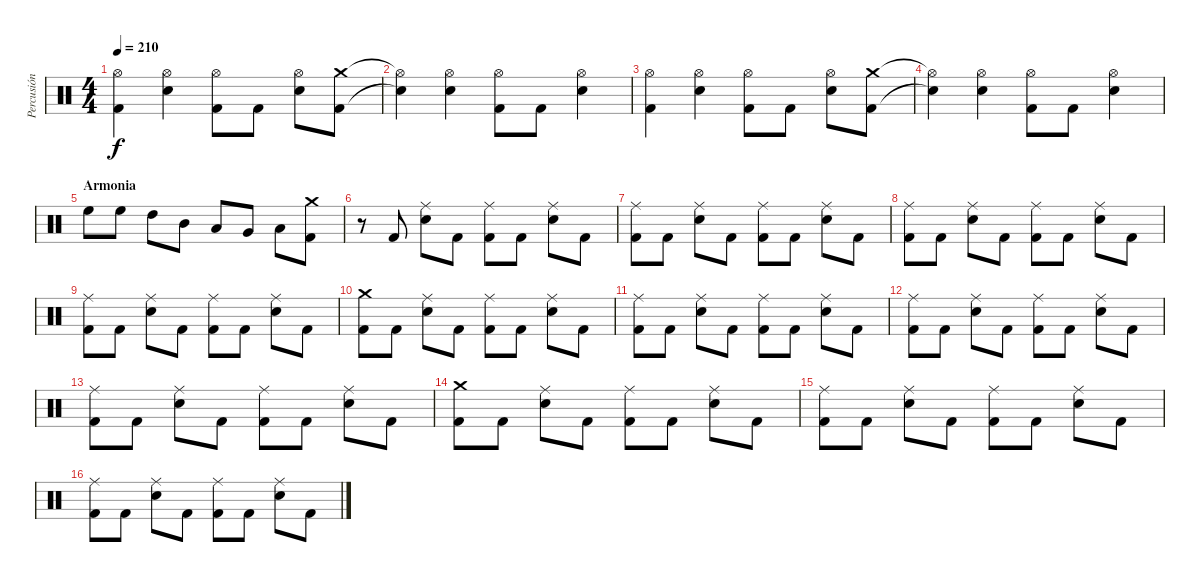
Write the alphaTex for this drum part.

\track ("Percusión" "Percusión") {instrument percussion}
\staff {score}
\articulation defaults
\ts (4 4)
\tempo 210
\clef neutral
\ks c
("Hi-Hat (open)" "Kick (hit) 2").4{dy f} ("Snare (hit) 2" "Hi-Hat (open)").4 ("Hi-Hat (open)" "Kick (hit) 2").8 "Kick (hit) 2".8 ("Snare (hit) 2" "Hi-Hat (open)").8 ("Crash medium (hit)" "Kick (hit) 2").8 |
("Hi-Hat (open)"{t} "Snare (hit)"{t}).4 ("Snare (hit) 2" "Hi-Hat (open)").4 ("Hi-Hat (open)" "Kick (hit) 2").8 "Kick (hit) 2".8 ("Snare (hit) 2" "Hi-Hat (open)").4 |
("Hi-Hat (open)" "Kick (hit) 2").4 ("Snare (hit) 2" "Hi-Hat (open)").4 ("Hi-Hat (open)" "Kick (hit) 2").8 "Kick (hit) 2".8 ("Snare (hit) 2" "Hi-Hat (open)").8 ("Crash medium (hit)" "Kick (hit) 2").8 |
("Hi-Hat (open)"{t} "Snare (hit)"{t}).4 ("Snare (hit) 2" "Hi-Hat (open)").4 ("Hi-Hat (open)" "Kick (hit) 2").8 "Kick (hit) 2".8 ("Snare (hit) 2" "Hi-Hat (open)").4 |
\section ("" "Armonia")
"High Floor Tom (hit)".8 "High Floor Tom (hit)".8 "High Tom (hit)".8 "Mid Tom (hit)".8 "Low Tom (hit)".8 "Very Low Tom (hit)".8 "Low Floor Tom (hit)".8 ("Kick (hit) 2" "Crash medium (hit)").8 |
r.8 "Kick (hit) 2".8 ("Snare (hit) 2" "Ride (middle)").8 "Kick (hit) 2".8 ("Kick (hit) 2" "Ride (middle)").8 "Kick (hit) 2".8 ("Snare (hit) 2" "Ride (middle)").8 "Kick (hit) 2".8 |
("Ride (middle)" "Kick (hit) 2").8 "Kick (hit) 2".8 ("Snare (hit) 2" "Ride (middle)").8 "Kick (hit) 2".8 ("Kick (hit) 2" "Ride (middle)").8 "Kick (hit) 2".8 ("Snare (hit) 2" "Ride (middle)").8 "Kick (hit) 2".8 |
("Ride (middle)" "Kick (hit) 2").8 "Kick (hit) 2".8 ("Snare (hit) 2" "Ride (middle)").8 "Kick (hit) 2".8 ("Kick (hit) 2" "Ride (middle)").8 "Kick (hit) 2".8 ("Snare (hit) 2" "Ride (middle)").8 "Kick (hit) 2".8 |
("Ride (middle)" "Kick (hit) 2").8 "Kick (hit) 2".8 ("Snare (hit) 2" "Ride (middle)").8 "Kick (hit) 2".8 ("Kick (hit) 2" "Ride (middle)").8 "Kick (hit) 2".8 ("Snare (hit) 2" "Ride (middle)").8 "Kick (hit) 2".8 |
("Crash medium (hit)" "Kick (hit) 2").8 "Kick (hit) 2".8 ("Snare (hit) 2" "Ride (middle)").8 "Kick (hit) 2".8 ("Kick (hit) 2" "Ride (middle)").8 "Kick (hit) 2".8 ("Snare (hit) 2" "Ride (middle)").8 "Kick (hit) 2".8 |
("Ride (middle)" "Kick (hit) 2").8 "Kick (hit) 2".8 ("Snare (hit) 2" "Ride (middle)").8 "Kick (hit) 2".8 ("Kick (hit) 2" "Ride (middle)").8 "Kick (hit) 2".8 ("Snare (hit) 2" "Ride (middle)").8 "Kick (hit) 2".8 |
("Ride (middle)" "Kick (hit) 2").8 "Kick (hit) 2".8 ("Snare (hit) 2" "Ride (middle)").8 "Kick (hit) 2".8 ("Kick (hit) 2" "Ride (middle)").8 "Kick (hit) 2".8 ("Snare (hit) 2" "Ride (middle)").8 "Kick (hit) 2".8 |
("Ride (middle)" "Kick (hit) 2").8 "Kick (hit) 2".8 ("Snare (hit) 2" "Ride (middle)").8 "Kick (hit) 2".8 ("Kick (hit) 2" "Ride (middle)").8 "Kick (hit) 2".8 ("Snare (hit) 2" "Ride (middle)").8 "Kick (hit) 2".8 |
("Crash medium (hit)" "Kick (hit) 2").8 "Kick (hit) 2".8 ("Snare (hit) 2" "Ride (middle)").8 "Kick (hit) 2".8 ("Kick (hit) 2" "Ride (middle)").8 "Kick (hit) 2".8 ("Snare (hit) 2" "Ride (middle)").8 "Kick (hit) 2".8 |
("Ride (middle)" "Kick (hit) 2").8 "Kick (hit) 2".8 ("Snare (hit) 2" "Ride (middle)").8 "Kick (hit) 2".8 ("Kick (hit) 2" "Ride (middle)").8 "Kick (hit) 2".8 ("Snare (hit) 2" "Ride (middle)").8 "Kick (hit) 2".8 |
("Ride (middle)" "Kick (hit) 2").8 "Kick (hit) 2".8 ("Snare (hit) 2" "Ride (middle)").8 "Kick (hit) 2".8 ("Kick (hit) 2" "Ride (middle)").8 "Kick (hit) 2".8 ("Snare (hit) 2" "Ride (middle)").8 "Kick (hit) 2".8
